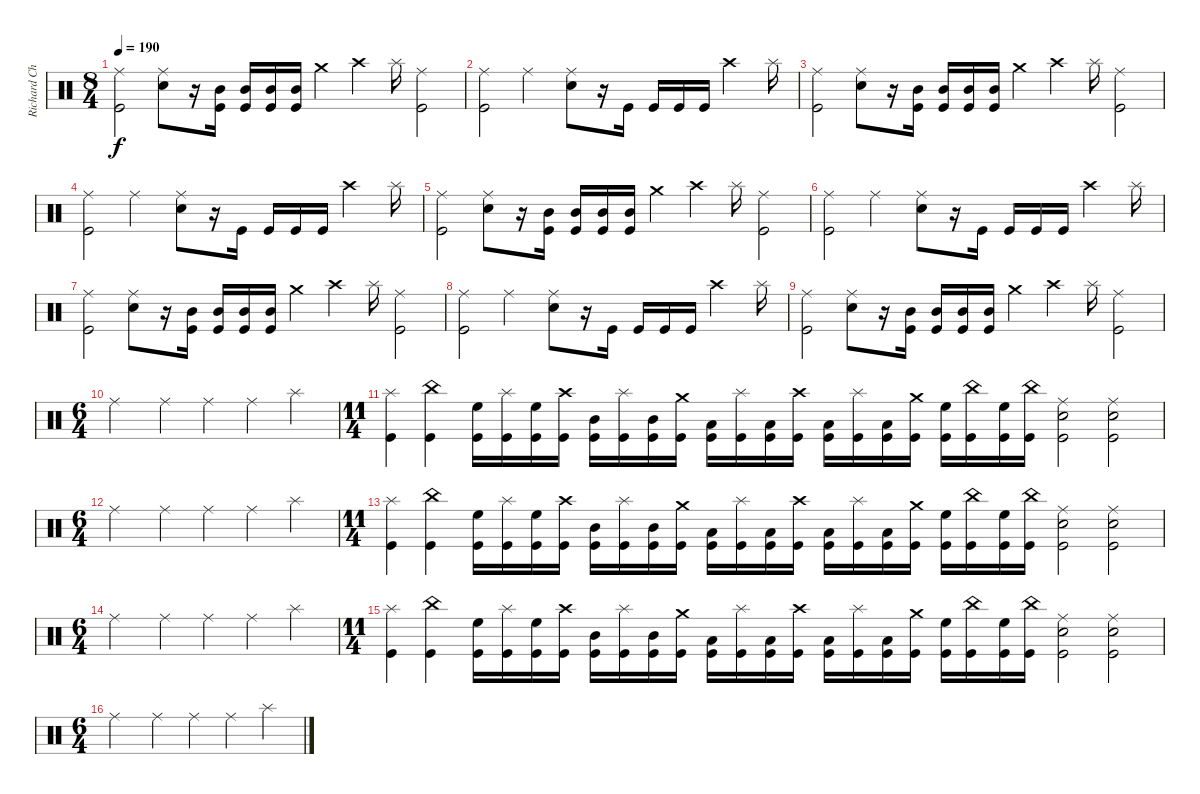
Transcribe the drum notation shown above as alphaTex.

\track ("Richard Christy" "Richard Ch") {instrument percussion}
\staff {score}
\articulation defaults
\ts (8 4)
\tempo 190
\clef neutral
\ks c
("Ride (middle)" "Kick (hit)").2{dy f} ("Ride (middle)" "Electric Snare (hit)").8 r.16 ("Mid Tom (hit)" "Kick (hit)").16 ("Mid Tom (hit)" "Kick (hit)").16 ("Mid Tom (hit)" "Kick (hit)").16 ("Mid Tom (hit)" "Kick (hit)").16 "Crash medium (hit)".4 "Crash high (hit)".4 "Splash (hit)".16 ("Ride (middle)" "Kick (hit)").2 |
("Ride (middle)" "Kick (hit)").2 "Ride (middle)".2 ("Ride (middle)" "Electric Snare (hit)").8 r.16 "Kick (hit)".16 "Kick (hit)".16 "Kick (hit)".16 "Kick (hit)".16 "Crash high (hit)".2 "Splash (hit)".16 |
("Ride (middle)" "Kick (hit)").2 ("Ride (middle)" "Electric Snare (hit)").8 r.16 ("Mid Tom (hit)" "Kick (hit)").16 ("Mid Tom (hit)" "Kick (hit)").16 ("Mid Tom (hit)" "Kick (hit)").16 ("Mid Tom (hit)" "Kick (hit)").16 "Crash medium (hit)".4 "Crash high (hit)".4 "Splash (hit)".16 ("Ride (middle)" "Kick (hit)").2 |
("Ride (middle)" "Kick (hit)").2 "Ride (middle)".2 ("Ride (middle)" "Electric Snare (hit)").8 r.16 "Kick (hit)".16 "Kick (hit)".16 "Kick (hit)".16 "Kick (hit)".16 "Crash high (hit)".2 "Splash (hit)".16 |
("Ride (middle)" "Kick (hit)").2 ("Ride (middle)" "Electric Snare (hit)").8 r.16 ("Mid Tom (hit)" "Kick (hit)").16 ("Mid Tom (hit)" "Kick (hit)").16 ("Mid Tom (hit)" "Kick (hit)").16 ("Mid Tom (hit)" "Kick (hit)").16 "Crash medium (hit)".4 "Crash high (hit)".4 "Splash (hit)".16 ("Ride (middle)" "Kick (hit)").2 |
("Ride (middle)" "Kick (hit)").2 "Ride (middle)".2 ("Ride (middle)" "Electric Snare (hit)").8 r.16 "Kick (hit)".16 "Kick (hit)".16 "Kick (hit)".16 "Kick (hit)".16 "Crash high (hit)".2 "Splash (hit)".16 |
("Ride (middle)" "Kick (hit)").2 ("Ride (middle)" "Electric Snare (hit)").8 r.16 ("Mid Tom (hit)" "Kick (hit)").16 ("Mid Tom (hit)" "Kick (hit)").16 ("Mid Tom (hit)" "Kick (hit)").16 ("Mid Tom (hit)" "Kick (hit)").16 "Crash medium (hit)".4 "Crash high (hit)".4 "Splash (hit)".16 ("Ride (middle)" "Kick (hit)").2 |
("Ride (middle)" "Kick (hit)").2 "Ride (middle)".2 ("Ride (middle)" "Electric Snare (hit)").8 r.16 "Kick (hit)".16 "Kick (hit)".16 "Kick (hit)".16 "Kick (hit)".16 "Crash high (hit)".2 "Splash (hit)".16 |
("Ride (middle)" "Kick (hit)").2 ("Ride (middle)" "Electric Snare (hit)").8 r.16 ("Mid Tom (hit)" "Kick (hit)").16 ("Mid Tom (hit)" "Kick (hit)").16 ("Mid Tom (hit)" "Kick (hit)").16 ("Mid Tom (hit)" "Kick (hit)").16 "Crash medium (hit)".4 "Crash high (hit)".4 "Splash (hit)".16 ("Ride (middle)" "Kick (hit)").2 |
\ts (6 4)
"Ride (middle)".2 "Ride (middle)".4 "Ride (middle)".4 "Ride (middle)".4 "Splash (hit)".4 |
\ts (11 4)
("Splash (hit)" "Kick (hit)").4 ("China (hit)" "Kick (hit)").4 ("High Floor Tom (hit)" "Kick (hit)").16 ("Splash (hit)" "Kick (hit)").16 ("High Floor Tom (hit)" "Kick (hit)").16 ("Crash high (hit)" "Kick (hit)").16 ("Mid Tom (hit)" "Kick (hit)").16 ("Splash (hit)" "Kick (hit)").16 ("Mid Tom (hit)" "Kick (hit)").16 ("Crash medium (hit)" "Kick (hit)").16 ("Low Tom (hit)" "Kick (hit)").16 ("Splash (hit)" "Kick (hit)").16 ("Low Tom (hit)" "Kick (hit)").16 ("Crash high (hit)" "Kick (hit)").16 ("Low Floor Tom (hit)" "Kick (hit)").16 ("Splash (hit)" "Kick (hit)").16 ("Low Floor Tom (hit)" "Kick (hit)").16 ("Crash medium (hit)" "Kick (hit)").16 ("High Floor Tom (hit)" "Kick (hit)").16 ("China (hit)" "Kick (hit)").16 ("High Floor Tom (hit)" "Kick (hit)").16 ("China (hit)" "Kick (hit)").16 ("Ride (middle)" "Electric Snare (hit)" "Kick (hit)").2 ("Ride (middle)" "Electric Snare (hit)" "Kick (hit)").2 |
\ts (6 4)
"Ride (middle)".2 "Ride (middle)".4 "Ride (middle)".4 "Ride (middle)".4 "Splash (hit)".4 |
\ts (11 4)
("Splash (hit)" "Kick (hit)").4 ("China (hit)" "Kick (hit)").4 ("High Floor Tom (hit)" "Kick (hit)").16 ("Splash (hit)" "Kick (hit)").16 ("High Floor Tom (hit)" "Kick (hit)").16 ("Crash high (hit)" "Kick (hit)").16 ("Mid Tom (hit)" "Kick (hit)").16 ("Splash (hit)" "Kick (hit)").16 ("Mid Tom (hit)" "Kick (hit)").16 ("Crash medium (hit)" "Kick (hit)").16 ("Low Tom (hit)" "Kick (hit)").16 ("Splash (hit)" "Kick (hit)").16 ("Low Tom (hit)" "Kick (hit)").16 ("Crash high (hit)" "Kick (hit)").16 ("Low Floor Tom (hit)" "Kick (hit)").16 ("Splash (hit)" "Kick (hit)").16 ("Low Floor Tom (hit)" "Kick (hit)").16 ("Crash medium (hit)" "Kick (hit)").16 ("High Floor Tom (hit)" "Kick (hit)").16 ("China (hit)" "Kick (hit)").16 ("High Floor Tom (hit)" "Kick (hit)").16 ("China (hit)" "Kick (hit)").16 ("Ride (middle)" "Electric Snare (hit)" "Kick (hit)").2 ("Ride (middle)" "Electric Snare (hit)" "Kick (hit)").2 |
\ts (6 4)
"Ride (middle)".2 "Ride (middle)".4 "Ride (middle)".4 "Ride (middle)".4 "Splash (hit)".4 |
\ts (11 4)
("Splash (hit)" "Kick (hit)").4 ("China (hit)" "Kick (hit)").4 ("High Floor Tom (hit)" "Kick (hit)").16 ("Splash (hit)" "Kick (hit)").16 ("High Floor Tom (hit)" "Kick (hit)").16 ("Crash high (hit)" "Kick (hit)").16 ("Mid Tom (hit)" "Kick (hit)").16 ("Splash (hit)" "Kick (hit)").16 ("Mid Tom (hit)" "Kick (hit)").16 ("Crash medium (hit)" "Kick (hit)").16 ("Low Tom (hit)" "Kick (hit)").16 ("Splash (hit)" "Kick (hit)").16 ("Low Tom (hit)" "Kick (hit)").16 ("Crash high (hit)" "Kick (hit)").16 ("Low Floor Tom (hit)" "Kick (hit)").16 ("Splash (hit)" "Kick (hit)").16 ("Low Floor Tom (hit)" "Kick (hit)").16 ("Crash medium (hit)" "Kick (hit)").16 ("High Floor Tom (hit)" "Kick (hit)").16 ("China (hit)" "Kick (hit)").16 ("High Floor Tom (hit)" "Kick (hit)").16 ("China (hit)" "Kick (hit)").16 ("Ride (middle)" "Electric Snare (hit)" "Kick (hit)").2 ("Ride (middle)" "Electric Snare (hit)" "Kick (hit)").2 |
\ts (6 4)
"Ride (middle)".2 "Ride (middle)".4 "Ride (middle)".4 "Ride (middle)".4 "Splash (hit)".4
